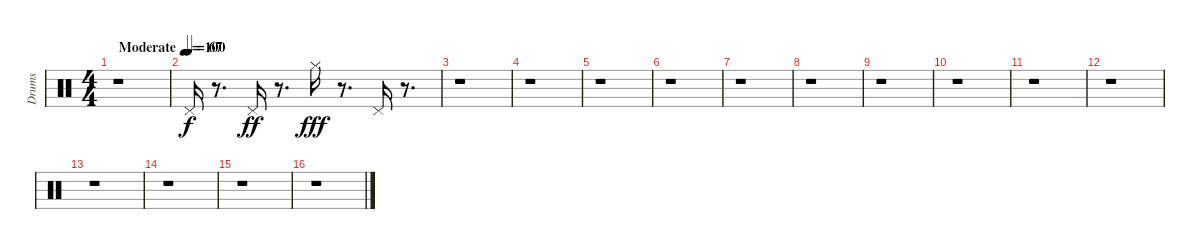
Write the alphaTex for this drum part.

\track ("Drums" "Drums") {instrument percussion}
\staff {score}
\articulation defaults
\ts (4 4)
\tempo (100 "Moderate")
\clef neutral
\ks c
r.1{dy f} |
\tempo (67)
"Pedal Hi-Hat (hit)".16 r.8{d} "Pedal Hi-Hat (hit)".16{dy ff} r.8{d} "Hi-Hat (closed)".16{dy fff} r.8{d} "Pedal Hi-Hat (hit)".16 r.8{d} |
r.1 |
r.1 |
r.1 |
r.1 |
r.1 |
r.1 |
r.1 |
r.1 |
r.1 |
r.1 |
r.1 |
r.1 |
r.1 |
r.1
